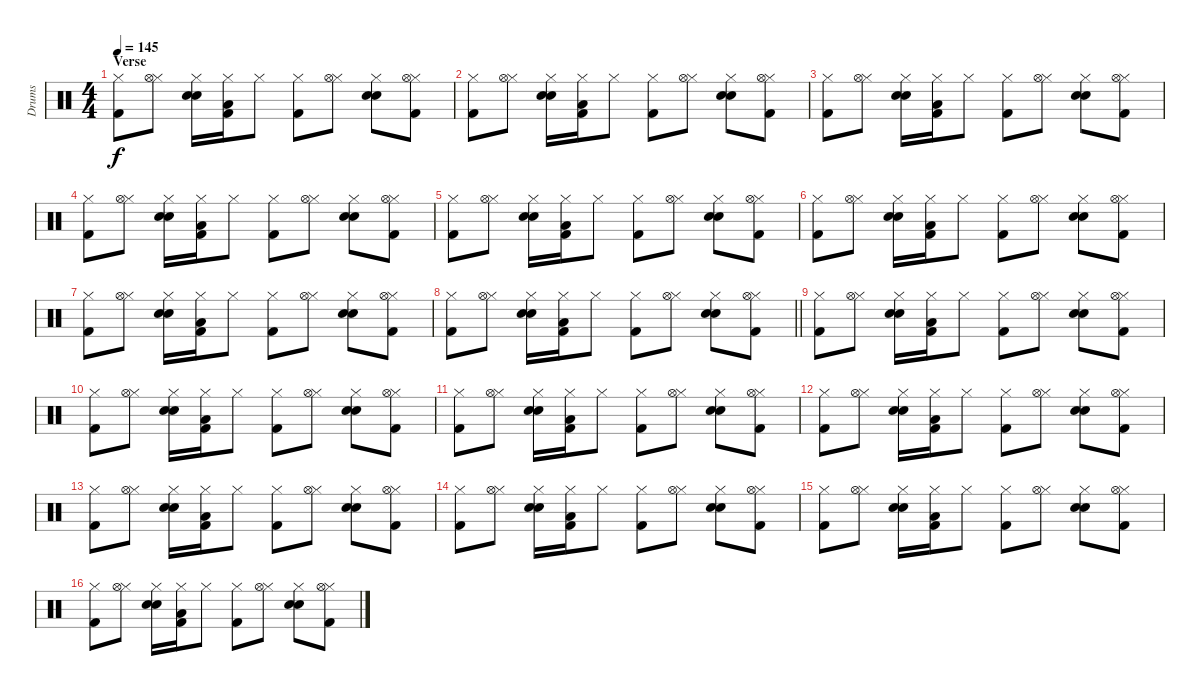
\track ("Drums" "Drums") {instrument percussion}
\staff {score}
\articulation defaults
\ts (4 4)
\section ("" "Verse")
\tempo 145
\clef neutral
\ks c
("Hi-Hat (closed)" "Kick (hit) 2").8{dy f} ("Hi-Hat (closed)" "Hi-Hat (open)").8 ("Hi-Hat (closed)" "Snare (hit) 2" "Electric Snare (hit)").16 ("Hi-Hat (closed)" "Low Floor Tom (hit)" "Kick (hit) 2").16 "Hi-Hat (closed)".8 ("Hi-Hat (closed)" "Kick (hit) 2").8 ("Hi-Hat (closed)" "Hi-Hat (open)").8 ("Hi-Hat (closed)" "Snare (hit) 2" "Electric Snare (hit)").8 ("Hi-Hat (closed)" "Hi-Hat (open)" "Kick (hit) 2").8 |
("Hi-Hat (closed)" "Kick (hit) 2").8 ("Hi-Hat (closed)" "Hi-Hat (open)").8 ("Hi-Hat (closed)" "Snare (hit) 2" "Electric Snare (hit)").16 ("Hi-Hat (closed)" "Low Floor Tom (hit)" "Kick (hit) 2").16 "Hi-Hat (closed)".8 ("Hi-Hat (closed)" "Kick (hit) 2").8 ("Hi-Hat (closed)" "Hi-Hat (open)").8 ("Hi-Hat (closed)" "Snare (hit) 2" "Electric Snare (hit)").8 ("Hi-Hat (closed)" "Hi-Hat (open)" "Kick (hit) 2").8 |
("Hi-Hat (closed)" "Kick (hit) 2").8 ("Hi-Hat (closed)" "Hi-Hat (open)").8 ("Hi-Hat (closed)" "Snare (hit) 2" "Electric Snare (hit)").16 ("Hi-Hat (closed)" "Low Floor Tom (hit)" "Kick (hit) 2").16 "Hi-Hat (closed)".8 ("Hi-Hat (closed)" "Kick (hit) 2").8 ("Hi-Hat (closed)" "Hi-Hat (open)").8 ("Hi-Hat (closed)" "Snare (hit) 2" "Electric Snare (hit)").8 ("Hi-Hat (closed)" "Hi-Hat (open)" "Kick (hit) 2").8 |
("Hi-Hat (closed)" "Kick (hit) 2").8 ("Hi-Hat (closed)" "Hi-Hat (open)").8 ("Hi-Hat (closed)" "Snare (hit) 2" "Electric Snare (hit)").16 ("Hi-Hat (closed)" "Low Floor Tom (hit)" "Kick (hit) 2").16 "Hi-Hat (closed)".8 ("Hi-Hat (closed)" "Kick (hit) 2").8 ("Hi-Hat (closed)" "Hi-Hat (open)").8 ("Hi-Hat (closed)" "Snare (hit) 2" "Electric Snare (hit)").8 ("Hi-Hat (closed)" "Hi-Hat (open)" "Kick (hit) 2").8 |
("Hi-Hat (closed)" "Kick (hit) 2").8 ("Hi-Hat (closed)" "Hi-Hat (open)").8 ("Hi-Hat (closed)" "Snare (hit) 2" "Electric Snare (hit)").16 ("Hi-Hat (closed)" "Low Floor Tom (hit)" "Kick (hit) 2").16 "Hi-Hat (closed)".8 ("Hi-Hat (closed)" "Kick (hit) 2").8 ("Hi-Hat (closed)" "Hi-Hat (open)").8 ("Hi-Hat (closed)" "Snare (hit) 2" "Electric Snare (hit)").8 ("Hi-Hat (closed)" "Hi-Hat (open)" "Kick (hit) 2").8 |
("Hi-Hat (closed)" "Kick (hit) 2").8 ("Hi-Hat (closed)" "Hi-Hat (open)").8 ("Hi-Hat (closed)" "Snare (hit) 2" "Electric Snare (hit)").16 ("Hi-Hat (closed)" "Low Floor Tom (hit)" "Kick (hit) 2").16 "Hi-Hat (closed)".8 ("Hi-Hat (closed)" "Kick (hit) 2").8 ("Hi-Hat (closed)" "Hi-Hat (open)").8 ("Hi-Hat (closed)" "Snare (hit) 2" "Electric Snare (hit)").8 ("Hi-Hat (closed)" "Hi-Hat (open)" "Kick (hit) 2").8 |
("Hi-Hat (closed)" "Kick (hit) 2").8 ("Hi-Hat (closed)" "Hi-Hat (open)").8 ("Hi-Hat (closed)" "Snare (hit) 2" "Electric Snare (hit)").16 ("Hi-Hat (closed)" "Low Floor Tom (hit)" "Kick (hit) 2").16 "Hi-Hat (closed)".8 ("Hi-Hat (closed)" "Kick (hit) 2").8 ("Hi-Hat (closed)" "Hi-Hat (open)").8 ("Hi-Hat (closed)" "Snare (hit) 2" "Electric Snare (hit)").8 ("Hi-Hat (closed)" "Hi-Hat (open)" "Kick (hit) 2").8 |
\barLineRight lightlight
("Hi-Hat (closed)" "Kick (hit) 2").8 ("Hi-Hat (closed)" "Hi-Hat (open)").8 ("Hi-Hat (closed)" "Snare (hit) 2" "Electric Snare (hit)").16 ("Hi-Hat (closed)" "Low Floor Tom (hit)" "Kick (hit) 2").16 "Hi-Hat (closed)".8 ("Hi-Hat (closed)" "Kick (hit) 2").8 ("Hi-Hat (closed)" "Hi-Hat (open)").8 ("Hi-Hat (closed)" "Snare (hit) 2" "Electric Snare (hit)").8 ("Hi-Hat (closed)" "Hi-Hat (open)" "Kick (hit) 2").8 |
("Hi-Hat (closed)" "Kick (hit) 2").8 ("Hi-Hat (closed)" "Hi-Hat (open)").8 ("Hi-Hat (closed)" "Snare (hit) 2" "Electric Snare (hit)").16 ("Hi-Hat (closed)" "Low Floor Tom (hit)" "Kick (hit) 2").16 "Hi-Hat (closed)".8 ("Hi-Hat (closed)" "Kick (hit) 2").8 ("Hi-Hat (closed)" "Hi-Hat (open)").8 ("Hi-Hat (closed)" "Snare (hit) 2" "Electric Snare (hit)").8 ("Hi-Hat (closed)" "Hi-Hat (open)" "Kick (hit) 2").8 |
("Hi-Hat (closed)" "Kick (hit) 2").8 ("Hi-Hat (closed)" "Hi-Hat (open)").8 ("Hi-Hat (closed)" "Snare (hit) 2" "Electric Snare (hit)").16 ("Hi-Hat (closed)" "Low Floor Tom (hit)" "Kick (hit) 2").16 "Hi-Hat (closed)".8 ("Hi-Hat (closed)" "Kick (hit) 2").8 ("Hi-Hat (closed)" "Hi-Hat (open)").8 ("Hi-Hat (closed)" "Snare (hit) 2" "Electric Snare (hit)").8 ("Hi-Hat (closed)" "Hi-Hat (open)" "Kick (hit) 2").8 |
("Hi-Hat (closed)" "Kick (hit) 2").8 ("Hi-Hat (closed)" "Hi-Hat (open)").8 ("Hi-Hat (closed)" "Snare (hit) 2" "Electric Snare (hit)").16 ("Hi-Hat (closed)" "Low Floor Tom (hit)" "Kick (hit) 2").16 "Hi-Hat (closed)".8 ("Hi-Hat (closed)" "Kick (hit) 2").8 ("Hi-Hat (closed)" "Hi-Hat (open)").8 ("Hi-Hat (closed)" "Snare (hit) 2" "Electric Snare (hit)").8 ("Hi-Hat (closed)" "Hi-Hat (open)" "Kick (hit) 2").8 |
("Hi-Hat (closed)" "Kick (hit) 2").8 ("Hi-Hat (closed)" "Hi-Hat (open)").8 ("Hi-Hat (closed)" "Snare (hit) 2" "Electric Snare (hit)").16 ("Hi-Hat (closed)" "Low Floor Tom (hit)" "Kick (hit) 2").16 "Hi-Hat (closed)".8 ("Hi-Hat (closed)" "Kick (hit) 2").8 ("Hi-Hat (closed)" "Hi-Hat (open)").8 ("Hi-Hat (closed)" "Snare (hit) 2" "Electric Snare (hit)").8 ("Hi-Hat (closed)" "Hi-Hat (open)" "Kick (hit) 2").8 |
("Hi-Hat (closed)" "Kick (hit) 2").8 ("Hi-Hat (closed)" "Hi-Hat (open)").8 ("Hi-Hat (closed)" "Snare (hit) 2" "Electric Snare (hit)").16 ("Hi-Hat (closed)" "Low Floor Tom (hit)" "Kick (hit) 2").16 "Hi-Hat (closed)".8 ("Hi-Hat (closed)" "Kick (hit) 2").8 ("Hi-Hat (closed)" "Hi-Hat (open)").8 ("Hi-Hat (closed)" "Snare (hit) 2" "Electric Snare (hit)").8 ("Hi-Hat (closed)" "Hi-Hat (open)" "Kick (hit) 2").8 |
("Hi-Hat (closed)" "Kick (hit) 2").8 ("Hi-Hat (closed)" "Hi-Hat (open)").8 ("Hi-Hat (closed)" "Snare (hit) 2" "Electric Snare (hit)").16 ("Hi-Hat (closed)" "Low Floor Tom (hit)" "Kick (hit) 2").16 "Hi-Hat (closed)".8 ("Hi-Hat (closed)" "Kick (hit) 2").8 ("Hi-Hat (closed)" "Hi-Hat (open)").8 ("Hi-Hat (closed)" "Snare (hit) 2" "Electric Snare (hit)").8 ("Hi-Hat (closed)" "Hi-Hat (open)" "Kick (hit) 2").8 |
("Hi-Hat (closed)" "Kick (hit) 2").8 ("Hi-Hat (closed)" "Hi-Hat (open)").8 ("Hi-Hat (closed)" "Snare (hit) 2" "Electric Snare (hit)").16 ("Hi-Hat (closed)" "Low Floor Tom (hit)" "Kick (hit) 2").16 "Hi-Hat (closed)".8 ("Hi-Hat (closed)" "Kick (hit) 2").8 ("Hi-Hat (closed)" "Hi-Hat (open)").8 ("Hi-Hat (closed)" "Snare (hit) 2" "Electric Snare (hit)").8 ("Hi-Hat (closed)" "Hi-Hat (open)" "Kick (hit) 2").8 |
("Hi-Hat (closed)" "Kick (hit) 2").8 ("Hi-Hat (closed)" "Hi-Hat (open)").8 ("Hi-Hat (closed)" "Snare (hit) 2" "Electric Snare (hit)").16 ("Hi-Hat (closed)" "Low Floor Tom (hit)" "Kick (hit) 2").16 "Hi-Hat (closed)".8 ("Hi-Hat (closed)" "Kick (hit) 2").8 ("Hi-Hat (closed)" "Hi-Hat (open)").8 ("Hi-Hat (closed)" "Snare (hit) 2" "Electric Snare (hit)").8 ("Hi-Hat (closed)" "Hi-Hat (open)" "Kick (hit) 2").8
